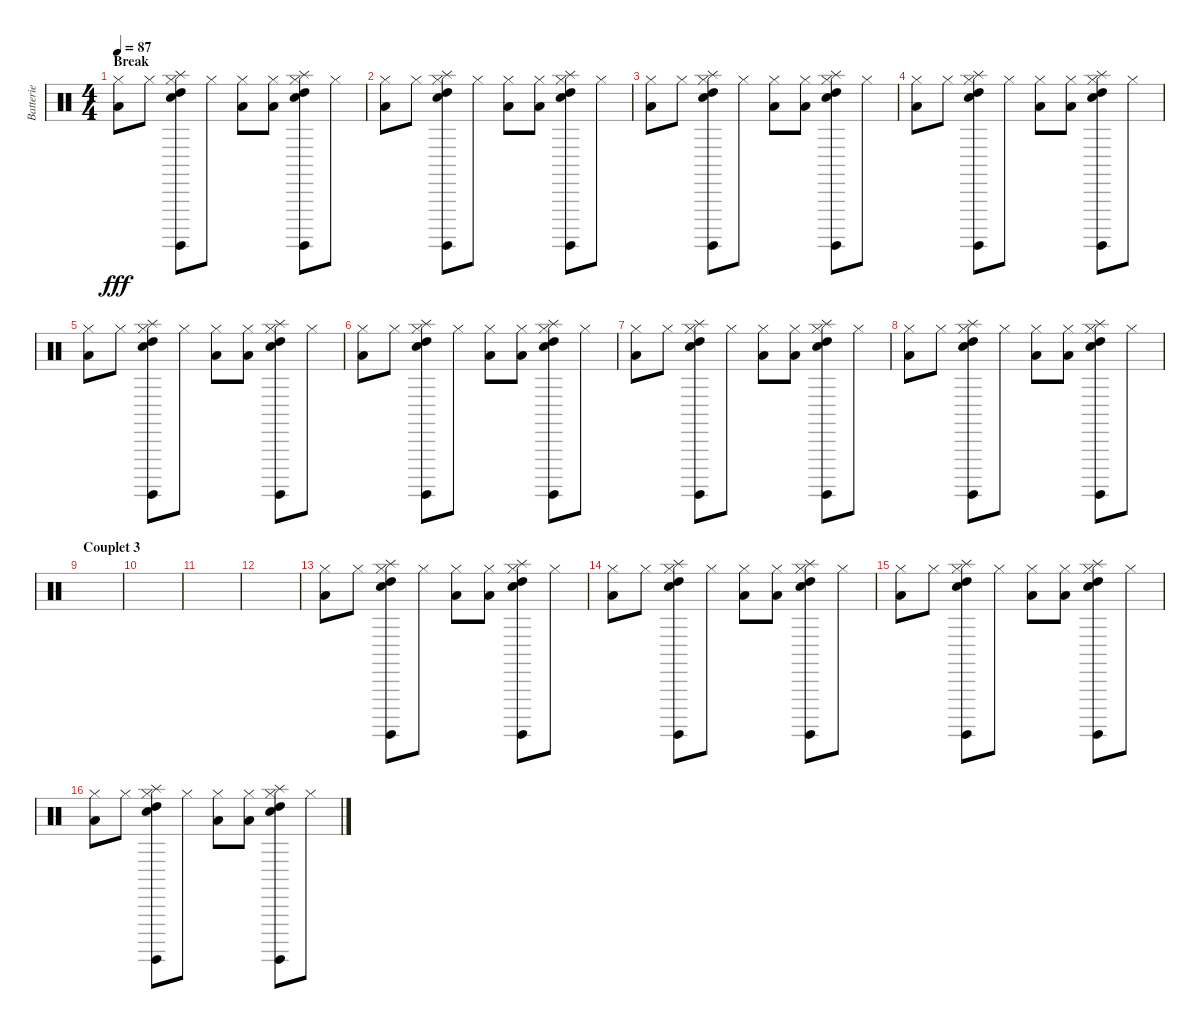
\track ("Batterie" "Batterie") {instrument percussion}
\staff {score}
\articulation defaults
\ts (4 4)
\section ("" "Break")
\tempo 87
\clef neutral
\ks c
("Hi-Hat (closed)" "Low Floor Tom (hit)").8{dy fff} "Hi-Hat (closed)".8 ("Hi-Hat (closed)" "Snare (hit) 2" "High Tom (hit)" "Surdo (hit)" "Splash (hit)").8 "Hi-Hat (closed)".8 ("Hi-Hat (closed)" "Low Floor Tom (hit)").8 ("Hi-Hat (closed)" "Low Floor Tom (hit)").8 ("Hi-Hat (closed)" "Snare (hit) 2" "High Tom (hit)" "Surdo (hit)" "Splash (hit)").8 "Hi-Hat (closed)".8 |
("Hi-Hat (closed)" "Low Floor Tom (hit)").8 "Hi-Hat (closed)".8 ("Hi-Hat (closed)" "Snare (hit) 2" "High Tom (hit)" "Surdo (hit)" "Splash (hit)").8 "Hi-Hat (closed)".8 ("Hi-Hat (closed)" "Low Floor Tom (hit)").8 ("Hi-Hat (closed)" "Low Floor Tom (hit)").8 ("Hi-Hat (closed)" "Snare (hit) 2" "High Tom (hit)" "Surdo (hit)" "Splash (hit)").8 "Hi-Hat (closed)".8 |
("Hi-Hat (closed)" "Low Floor Tom (hit)").8 "Hi-Hat (closed)".8 ("Hi-Hat (closed)" "Snare (hit) 2" "High Tom (hit)" "Surdo (hit)" "Splash (hit)").8 "Hi-Hat (closed)".8 ("Hi-Hat (closed)" "Low Floor Tom (hit)").8 ("Hi-Hat (closed)" "Low Floor Tom (hit)").8 ("Hi-Hat (closed)" "Snare (hit) 2" "High Tom (hit)" "Surdo (hit)" "Splash (hit)").8 "Hi-Hat (closed)".8 |
("Hi-Hat (closed)" "Low Floor Tom (hit)").8 "Hi-Hat (closed)".8 ("Hi-Hat (closed)" "Snare (hit) 2" "High Tom (hit)" "Surdo (hit)" "Splash (hit)").8 "Hi-Hat (closed)".8 ("Hi-Hat (closed)" "Low Floor Tom (hit)").8 ("Hi-Hat (closed)" "Low Floor Tom (hit)").8 ("Hi-Hat (closed)" "Snare (hit) 2" "High Tom (hit)" "Surdo (hit)" "Splash (hit)").8 "Hi-Hat (closed)".8 |
("Hi-Hat (closed)" "Low Floor Tom (hit)").8 "Hi-Hat (closed)".8 ("Hi-Hat (closed)" "Snare (hit) 2" "High Tom (hit)" "Surdo (hit)" "Splash (hit)").8 "Hi-Hat (closed)".8 ("Hi-Hat (closed)" "Low Floor Tom (hit)").8 ("Hi-Hat (closed)" "Low Floor Tom (hit)").8 ("Hi-Hat (closed)" "Snare (hit) 2" "High Tom (hit)" "Surdo (hit)" "Splash (hit)").8 "Hi-Hat (closed)".8 |
("Hi-Hat (closed)" "Low Floor Tom (hit)").8 "Hi-Hat (closed)".8 ("Hi-Hat (closed)" "Snare (hit) 2" "High Tom (hit)" "Surdo (hit)" "Splash (hit)").8 "Hi-Hat (closed)".8 ("Hi-Hat (closed)" "Low Floor Tom (hit)").8 ("Hi-Hat (closed)" "Low Floor Tom (hit)").8 ("Hi-Hat (closed)" "Snare (hit) 2" "High Tom (hit)" "Surdo (hit)" "Splash (hit)").8 "Hi-Hat (closed)".8 |
("Hi-Hat (closed)" "Low Floor Tom (hit)").8 "Hi-Hat (closed)".8 ("Hi-Hat (closed)" "Snare (hit) 2" "High Tom (hit)" "Surdo (hit)" "Splash (hit)").8 "Hi-Hat (closed)".8 ("Hi-Hat (closed)" "Low Floor Tom (hit)").8 ("Hi-Hat (closed)" "Low Floor Tom (hit)").8 ("Hi-Hat (closed)" "Snare (hit) 2" "High Tom (hit)" "Surdo (hit)" "Splash (hit)").8 "Hi-Hat (closed)".8 |
("Hi-Hat (closed)" "Low Floor Tom (hit)").8 "Hi-Hat (closed)".8 ("Hi-Hat (closed)" "Snare (hit) 2" "High Tom (hit)" "Surdo (hit)" "Splash (hit)").8 "Hi-Hat (closed)".8 ("Hi-Hat (closed)" "Low Floor Tom (hit)").8 ("Hi-Hat (closed)" "Low Floor Tom (hit)").8 ("Hi-Hat (closed)" "Snare (hit) 2" "High Tom (hit)" "Surdo (hit)" "Splash (hit)").8 "Hi-Hat (closed)".8 |
\section ("" "Couplet 3")
|
|
|
|
("Hi-Hat (closed)" "Low Floor Tom (hit)").8 "Hi-Hat (closed)".8 ("Hi-Hat (closed)" "Snare (hit) 2" "High Tom (hit)" "Surdo (hit)" "Splash (hit)").8 "Hi-Hat (closed)".8 ("Hi-Hat (closed)" "Low Floor Tom (hit)").8 ("Hi-Hat (closed)" "Low Floor Tom (hit)").8 ("Hi-Hat (closed)" "Snare (hit) 2" "High Tom (hit)" "Surdo (hit)" "Splash (hit)").8 "Hi-Hat (closed)".8 |
("Hi-Hat (closed)" "Low Floor Tom (hit)").8 "Hi-Hat (closed)".8 ("Hi-Hat (closed)" "Snare (hit) 2" "High Tom (hit)" "Surdo (hit)" "Splash (hit)").8 "Hi-Hat (closed)".8 ("Hi-Hat (closed)" "Low Floor Tom (hit)").8 ("Hi-Hat (closed)" "Low Floor Tom (hit)").8 ("Hi-Hat (closed)" "Snare (hit) 2" "High Tom (hit)" "Surdo (hit)" "Splash (hit)").8 "Hi-Hat (closed)".8 |
("Hi-Hat (closed)" "Low Floor Tom (hit)").8 "Hi-Hat (closed)".8 ("Hi-Hat (closed)" "Snare (hit) 2" "High Tom (hit)" "Surdo (hit)" "Splash (hit)").8 "Hi-Hat (closed)".8 ("Hi-Hat (closed)" "Low Floor Tom (hit)").8 ("Hi-Hat (closed)" "Low Floor Tom (hit)").8 ("Hi-Hat (closed)" "Snare (hit) 2" "High Tom (hit)" "Surdo (hit)" "Splash (hit)").8 "Hi-Hat (closed)".8 |
("Hi-Hat (closed)" "Low Floor Tom (hit)").8 "Hi-Hat (closed)".8 ("Hi-Hat (closed)" "Snare (hit) 2" "High Tom (hit)" "Surdo (hit)" "Splash (hit)").8 "Hi-Hat (closed)".8 ("Hi-Hat (closed)" "Low Floor Tom (hit)").8 ("Hi-Hat (closed)" "Low Floor Tom (hit)").8 ("Hi-Hat (closed)" "Snare (hit) 2" "High Tom (hit)" "Surdo (hit)" "Splash (hit)").8 "Hi-Hat (closed)".8
